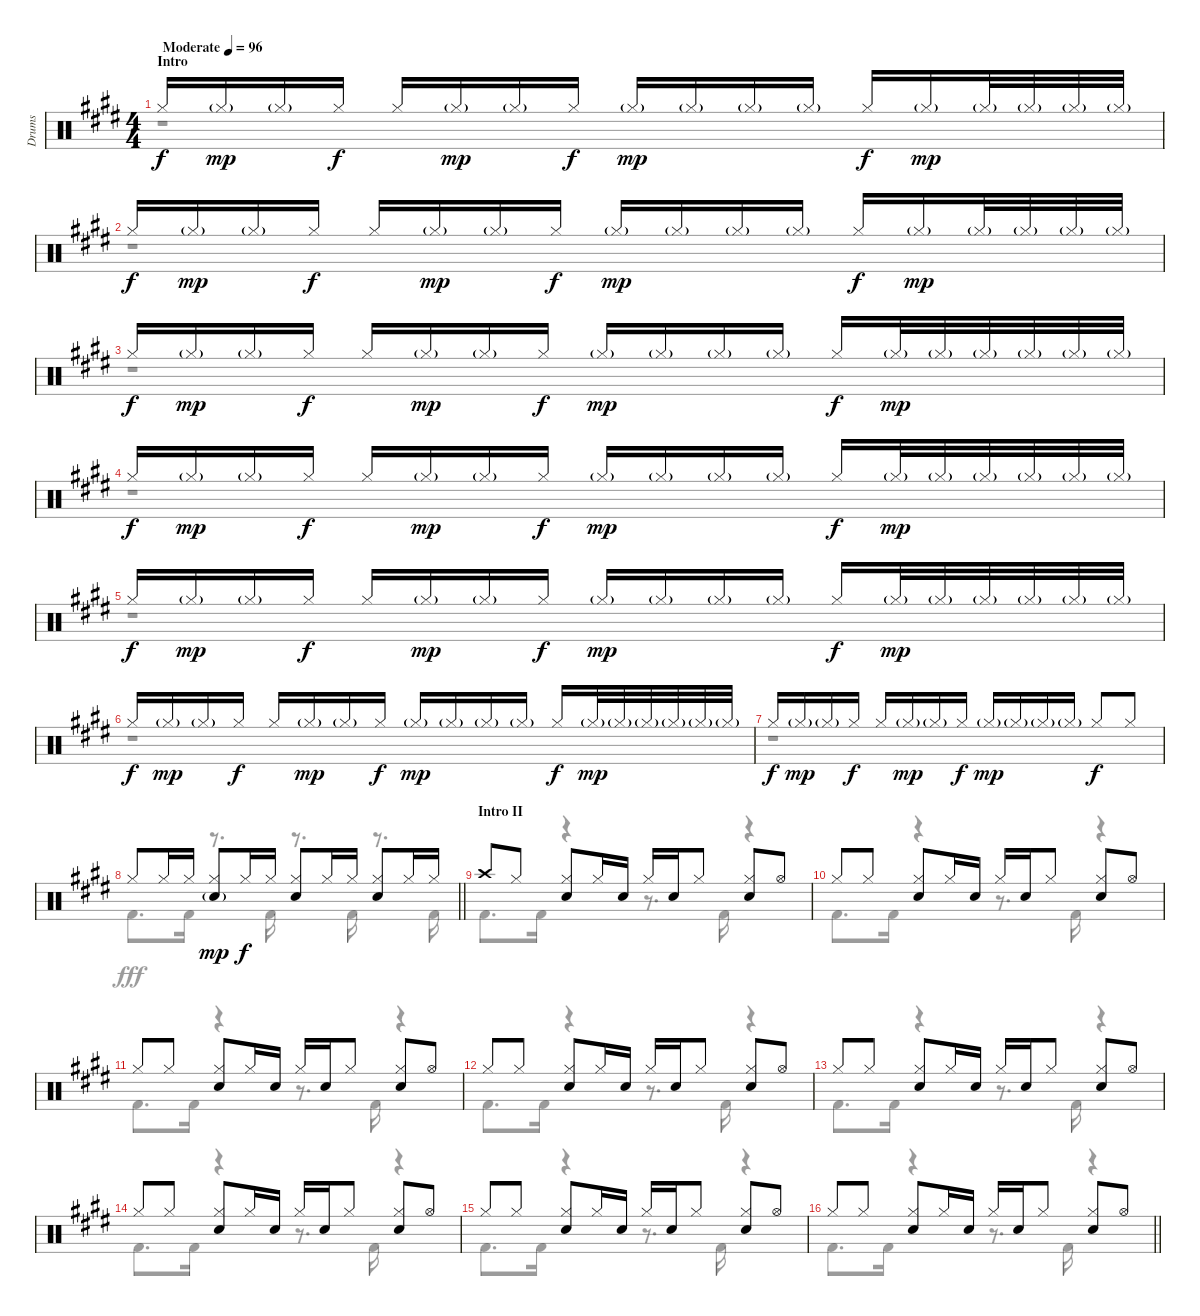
\track ("Drums" "Drums") {instrument percussion}
\staff {score}
\articulation defaults
\voice
\ts (4 4)
\section ("" "Intro")
\tempo (96 "Moderate")
\clef neutral
\ks e "Hi-Hat (closed)".16{dy f} "Hi-Hat (closed)"{g}.16{dy mp} "Hi-Hat (closed)"{g}.16 "Hi-Hat (closed)".16{dy f} "Hi-Hat (closed)".16 "Hi-Hat (closed)"{g}.16{dy mp} "Hi-Hat (closed)"{g}.16 "Hi-Hat (closed)".16{dy f} "Hi-Hat (closed)"{g}.16{dy mp} "Hi-Hat (closed)"{g}.16 "Hi-Hat (closed)"{g}.16 "Hi-Hat (closed)"{g}.16 "Hi-Hat (closed)".16{dy f} "Hi-Hat (closed)"{g}.16{dy mp} "Hi-Hat (closed)"{g}.32 "Hi-Hat (closed)"{g}.32 "Hi-Hat (closed)"{g}.32 "Hi-Hat (closed)"{g}.32
|
"Hi-Hat (closed)".16{dy f} "Hi-Hat (closed)"{g}.16{dy mp} "Hi-Hat (closed)"{g}.16 "Hi-Hat (closed)".16{dy f} "Hi-Hat (closed)".16 "Hi-Hat (closed)"{g}.16{dy mp} "Hi-Hat (closed)"{g}.16 "Hi-Hat (closed)".16{dy f} "Hi-Hat (closed)"{g}.16{dy mp} "Hi-Hat (closed)"{g}.16 "Hi-Hat (closed)"{g}.16 "Hi-Hat (closed)"{g}.16 "Hi-Hat (closed)".16{dy f} "Hi-Hat (closed)"{g}.16{dy mp} "Hi-Hat (closed)"{g}.32 "Hi-Hat (closed)"{g}.32 "Hi-Hat (closed)"{g}.32 "Hi-Hat (closed)"{g}.32 |
"Hi-Hat (closed)".16{dy f} "Hi-Hat (closed)"{g}.16{dy mp} "Hi-Hat (closed)"{g}.16 "Hi-Hat (closed)".16{dy f} "Hi-Hat (closed)".16 "Hi-Hat (closed)"{g}.16{dy mp} "Hi-Hat (closed)"{g}.16 "Hi-Hat (closed)".16{dy f} "Hi-Hat (closed)"{g}.16{dy mp} "Hi-Hat (closed)"{g}.16 "Hi-Hat (closed)"{g}.16 "Hi-Hat (closed)"{g}.16 "Hi-Hat (closed)".16{dy f} "Hi-Hat (closed)"{g}.32{dy mp} "Hi-Hat (closed)"{g}.32 "Hi-Hat (closed)"{g}.32 "Hi-Hat (closed)"{g}.32 "Hi-Hat (closed)"{g}.32 "Hi-Hat (closed)"{g}.32 |
"Hi-Hat (closed)".16{dy f} "Hi-Hat (closed)"{g}.16{dy mp} "Hi-Hat (closed)"{g}.16 "Hi-Hat (closed)".16{dy f} "Hi-Hat (closed)".16 "Hi-Hat (closed)"{g}.16{dy mp} "Hi-Hat (closed)"{g}.16 "Hi-Hat (closed)".16{dy f} "Hi-Hat (closed)"{g}.16{dy mp} "Hi-Hat (closed)"{g}.16 "Hi-Hat (closed)"{g}.16 "Hi-Hat (closed)"{g}.16 "Hi-Hat (closed)".16{dy f} "Hi-Hat (closed)"{g}.32{dy mp} "Hi-Hat (closed)"{g}.32 "Hi-Hat (closed)"{g}.32 "Hi-Hat (closed)"{g}.32 "Hi-Hat (closed)"{g}.32 "Hi-Hat (closed)"{g}.32 |
"Hi-Hat (closed)".16{dy f} "Hi-Hat (closed)"{g}.16{dy mp} "Hi-Hat (closed)"{g}.16 "Hi-Hat (closed)".16{dy f} "Hi-Hat (closed)".16 "Hi-Hat (closed)"{g}.16{dy mp} "Hi-Hat (closed)"{g}.16 "Hi-Hat (closed)".16{dy f} "Hi-Hat (closed)"{g}.16{dy mp} "Hi-Hat (closed)"{g}.16 "Hi-Hat (closed)"{g}.16 "Hi-Hat (closed)"{g}.16 "Hi-Hat (closed)".16{dy f} "Hi-Hat (closed)"{g}.32{dy mp} "Hi-Hat (closed)"{g}.32 "Hi-Hat (closed)"{g}.32 "Hi-Hat (closed)"{g}.32 "Hi-Hat (closed)"{g}.32 "Hi-Hat (closed)"{g}.32 |
"Hi-Hat (closed)".16{dy f} "Hi-Hat (closed)"{g}.16{dy mp} "Hi-Hat (closed)"{g}.16 "Hi-Hat (closed)".16{dy f} "Hi-Hat (closed)".16 "Hi-Hat (closed)"{g}.16{dy mp} "Hi-Hat (closed)"{g}.16 "Hi-Hat (closed)".16{dy f} "Hi-Hat (closed)"{g}.16{dy mp} "Hi-Hat (closed)"{g}.16 "Hi-Hat (closed)"{g}.16 "Hi-Hat (closed)"{g}.16 "Hi-Hat (closed)".16{dy f} "Hi-Hat (closed)"{g}.32{dy mp} "Hi-Hat (closed)"{g}.32 "Hi-Hat (closed)"{g}.32 "Hi-Hat (closed)"{g}.32 "Hi-Hat (closed)"{g}.32 "Hi-Hat (closed)"{g}.32 |
"Hi-Hat (closed)".16{dy f} "Hi-Hat (closed)"{g}.16{dy mp} "Hi-Hat (closed)"{g}.16 "Hi-Hat (closed)".16{dy f} "Hi-Hat (closed)".16 "Hi-Hat (closed)"{g}.16{dy mp} "Hi-Hat (closed)"{g}.16 "Hi-Hat (closed)".16{dy f} "Hi-Hat (closed)"{g}.16{dy mp} "Hi-Hat (closed)"{g}.16 "Hi-Hat (closed)"{g}.16 "Hi-Hat (closed)"{g}.16 "Hi-Hat (closed)".8{dy f} "Hi-Hat (closed)".8 |
\barLineRight lightlight "Hi-Hat (closed)".8 "Hi-Hat (closed)".16 "Hi-Hat (closed)".16
("Hi-Hat (closed)" "Snare (hit) 2"{g}).8{dy mp} "Hi-Hat (closed)".16{dy f} "Hi-Hat (closed)".16 ("Hi-Hat (closed)" "Snare (hit) 2").8 "Hi-Hat (closed)".16 "Hi-Hat (closed)".16 ("Hi-Hat (closed)" "Snare (hit) 2").8 "Hi-Hat (closed)".16 "Hi-Hat (closed)".16 |
\section ("" "Intro II")
"Crash high (hit)".8 "Hi-Hat (closed)".8 ("Hi-Hat (closed)" "Snare (hit) 2").8 "Hi-Hat (closed)".16 "Snare (hit) 2".16 "Hi-Hat (closed)".16 "Snare (hit) 2".16 "Hi-Hat (closed)".8 ("Hi-Hat (closed)" "Snare (hit) 2").8 "Hi-Hat (open)".8 |
"Hi-Hat (closed)".8 "Hi-Hat (closed)".8 ("Hi-Hat (closed)" "Snare (hit) 2").8 "Hi-Hat (closed)".16 "Snare (hit) 2".16 "Hi-Hat (closed)".16 "Snare (hit) 2".16 "Hi-Hat (closed)".8 ("Hi-Hat (closed)" "Snare (hit) 2").8 "Hi-Hat (open)".8 |
"Hi-Hat (closed)".8 "Hi-Hat (closed)".8 ("Hi-Hat (closed)" "Snare (hit) 2").8 "Hi-Hat (closed)".16 "Snare (hit) 2".16 "Hi-Hat (closed)".16 "Snare (hit) 2".16 "Hi-Hat (closed)".8 ("Hi-Hat (closed)" "Snare (hit) 2").8 "Hi-Hat (open)".8 |
"Hi-Hat (closed)".8 "Hi-Hat (closed)".8 ("Hi-Hat (closed)" "Snare (hit) 2").8 "Hi-Hat (closed)".16 "Snare (hit) 2".16 "Hi-Hat (closed)".16 "Snare (hit) 2".16 "Hi-Hat (closed)".8 ("Hi-Hat (closed)" "Snare (hit) 2").8 "Hi-Hat (open)".8 |
"Hi-Hat (closed)".8 "Hi-Hat (closed)".8 ("Hi-Hat (closed)" "Snare (hit) 2").8 "Hi-Hat (closed)".16 "Snare (hit) 2".16 "Hi-Hat (closed)".16 "Snare (hit) 2".16 "Hi-Hat (closed)".8 ("Hi-Hat (closed)" "Snare (hit) 2").8 "Hi-Hat (open)".8 |
"Hi-Hat (closed)".8 "Hi-Hat (closed)".8 ("Hi-Hat (closed)" "Snare (hit) 2").8 "Hi-Hat (closed)".16 "Snare (hit) 2".16 "Hi-Hat (closed)".16 "Snare (hit) 2".16 "Hi-Hat (closed)".8 ("Hi-Hat (closed)" "Snare (hit) 2").8 "Hi-Hat (open)".8 |
"Hi-Hat (closed)".8 "Hi-Hat (closed)".8 ("Hi-Hat (closed)" "Snare (hit) 2").8 "Hi-Hat (closed)".16 "Snare (hit) 2".16 "Hi-Hat (closed)".16 "Snare (hit) 2".16 "Hi-Hat (closed)".8 ("Hi-Hat (closed)" "Snare (hit) 2").8 "Hi-Hat (open)".8 |
\barLineRight lightlight "Hi-Hat (closed)".8 "Hi-Hat (closed)".8
("Hi-Hat (closed)" "Snare (hit) 2").8 "Hi-Hat (closed)".16 "Snare (hit) 2".16 "Hi-Hat (closed)".16 "Snare (hit) 2".16 "Hi-Hat (closed)".8 ("Hi-Hat (closed)" "Snare (hit) 2").8 "Hi-Hat (open)".8
\voice
\clef neutral
\ottava regular
\simile none
\ks e
r.1{dy fff} |
r.1 |
r.1 |
r.1 |
r.1 |
r.1 |
r.1 |
\barLineRight lightlight "Kick (hit) 2".8{d} "Kick (hit) 2".16
r.8{d} "Kick (hit) 2".16 r.8{d} "Kick (hit) 2".16 r.8{d} "Kick (hit) 2".16 |
"Kick (hit) 2".8{d} "Kick (hit) 2".16 r.4 r.8{d} "Kick (hit) 2".16 r.4 |
"Kick (hit) 2".8{d} "Kick (hit) 2".16 r.4 r.8{d} "Kick (hit) 2".16 r.4 |
"Kick (hit) 2".8{d} "Kick (hit) 2".16 r.4 r.8{d} "Kick (hit) 2".16 r.4 |
"Kick (hit) 2".8{d} "Kick (hit) 2".16 r.4 r.8{d} "Kick (hit) 2".16 r.4 |
"Kick (hit) 2".8{d} "Kick (hit) 2".16 r.4 r.8{d} "Kick (hit) 2".16 r.4 |
"Kick (hit) 2".8{d} "Kick (hit) 2".16 r.4 r.8{d} "Kick (hit) 2".16 r.4 |
"Kick (hit) 2".8{d} "Kick (hit) 2".16 r.4 r.8{d} "Kick (hit) 2".16 r.4 |
\barLineRight lightlight "Kick (hit) 2".8{d} "Kick (hit) 2".16
r.4 r.8{d} "Kick (hit) 2".16 r.4
